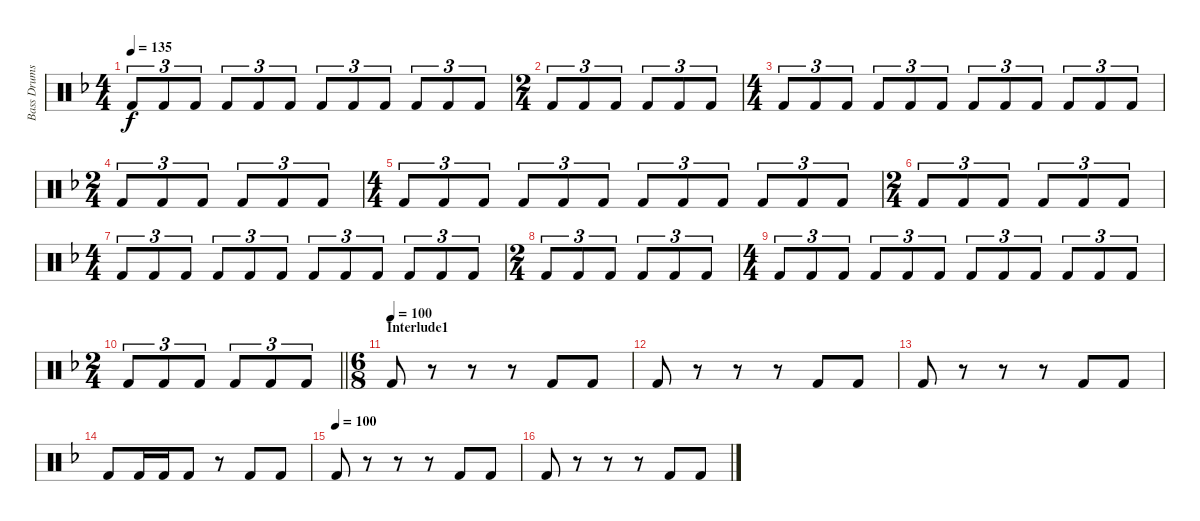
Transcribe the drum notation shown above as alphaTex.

\track ("Bass Drums" "Bass Drums") {instrument percussion}
\staff {score}
\articulation defaults
\ts (4 4)
\tempo 135
\clef neutral
\ks dminor "Kick (hit) 2".8{tu (3 2) dy f} "Kick (hit) 2".8{tu (3 2)} "Kick (hit) 2".8{tu (3 2)} "Kick (hit) 2".8{tu (3 2)} "Kick (hit) 2".8{tu (3 2)} "Kick (hit) 2".8{tu (3 2)} "Kick (hit) 2".8{tu (3 2)} "Kick (hit) 2".8{tu (3 2)} "Kick (hit) 2".8{tu (3 2)} "Kick (hit) 2".8{tu (3 2)} "Kick (hit) 2".8{tu (3 2)} "Kick (hit) 2".8{tu (3 2)}
|
\ts (2 4)
"Kick (hit) 2".8{tu (3 2)} "Kick (hit) 2".8{tu (3 2)} "Kick (hit) 2".8{tu (3 2)} "Kick (hit) 2".8{tu (3 2)} "Kick (hit) 2".8{tu (3 2)} "Kick (hit) 2".8{tu (3 2)} |
\ts (4 4)
"Kick (hit) 2".8{tu (3 2)} "Kick (hit) 2".8{tu (3 2)} "Kick (hit) 2".8{tu (3 2)} "Kick (hit) 2".8{tu (3 2)} "Kick (hit) 2".8{tu (3 2)} "Kick (hit) 2".8{tu (3 2)} "Kick (hit) 2".8{tu (3 2)} "Kick (hit) 2".8{tu (3 2)} "Kick (hit) 2".8{tu (3 2)} "Kick (hit) 2".8{tu (3 2)} "Kick (hit) 2".8{tu (3 2)} "Kick (hit) 2".8{tu (3 2)} |
\ts (2 4)
"Kick (hit) 2".8{tu (3 2)} "Kick (hit) 2".8{tu (3 2)} "Kick (hit) 2".8{tu (3 2)} "Kick (hit) 2".8{tu (3 2)} "Kick (hit) 2".8{tu (3 2)} "Kick (hit) 2".8{tu (3 2)} |
\ts (4 4)
"Kick (hit) 2".8{tu (3 2)} "Kick (hit) 2".8{tu (3 2)} "Kick (hit) 2".8{tu (3 2)} "Kick (hit) 2".8{tu (3 2)} "Kick (hit) 2".8{tu (3 2)} "Kick (hit) 2".8{tu (3 2)} "Kick (hit) 2".8{tu (3 2)} "Kick (hit) 2".8{tu (3 2)} "Kick (hit) 2".8{tu (3 2)} "Kick (hit) 2".8{tu (3 2)} "Kick (hit) 2".8{tu (3 2)} "Kick (hit) 2".8{tu (3 2)} |
\ts (2 4)
"Kick (hit) 2".8{tu (3 2)} "Kick (hit) 2".8{tu (3 2)} "Kick (hit) 2".8{tu (3 2)} "Kick (hit) 2".8{tu (3 2)} "Kick (hit) 2".8{tu (3 2)} "Kick (hit) 2".8{tu (3 2)} |
\ts (4 4)
"Kick (hit) 2".8{tu (3 2)} "Kick (hit) 2".8{tu (3 2)} "Kick (hit) 2".8{tu (3 2)} "Kick (hit) 2".8{tu (3 2)} "Kick (hit) 2".8{tu (3 2)} "Kick (hit) 2".8{tu (3 2)} "Kick (hit) 2".8{tu (3 2)} "Kick (hit) 2".8{tu (3 2)} "Kick (hit) 2".8{tu (3 2)} "Kick (hit) 2".8{tu (3 2)} "Kick (hit) 2".8{tu (3 2)} "Kick (hit) 2".8{tu (3 2)} |
\ts (2 4)
"Kick (hit) 2".8{tu (3 2)} "Kick (hit) 2".8{tu (3 2)} "Kick (hit) 2".8{tu (3 2)} "Kick (hit) 2".8{tu (3 2)} "Kick (hit) 2".8{tu (3 2)} "Kick (hit) 2".8{tu (3 2)} |
\ts (4 4)
"Kick (hit) 2".8{tu (3 2)} "Kick (hit) 2".8{tu (3 2)} "Kick (hit) 2".8{tu (3 2)} "Kick (hit) 2".8{tu (3 2)} "Kick (hit) 2".8{tu (3 2)} "Kick (hit) 2".8{tu (3 2)} "Kick (hit) 2".8{tu (3 2)} "Kick (hit) 2".8{tu (3 2)} "Kick (hit) 2".8{tu (3 2)} "Kick (hit) 2".8{tu (3 2)} "Kick (hit) 2".8{tu (3 2)} "Kick (hit) 2".8{tu (3 2)} |
\ts (2 4)
\barLineRight lightlight "Kick (hit) 2".8{tu (3 2)} "Kick (hit) 2".8{tu (3 2)} "Kick (hit) 2".8{tu (3 2)} "Kick (hit) 2".8{tu (3 2)} "Kick (hit) 2".8{tu (3 2)} "Kick (hit) 2".8{tu (3 2)}
|
\ts (6 8)
\section ("" "Interlude1")
\tempo 90
\tempo (100)
"Kick (hit) 2".8 r.8 r.8 r.8 "Kick (hit) 2".8 "Kick (hit) 2".8 |
"Kick (hit) 2".8 r.8 r.8 r.8 "Kick (hit) 2".8 "Kick (hit) 2".8 |
"Kick (hit) 2".8 r.8 r.8 r.8 "Kick (hit) 2".8 "Kick (hit) 2".8 |
"Kick (hit) 2".8 "Kick (hit) 2".16 "Kick (hit) 2".16 "Kick (hit) 2".8 r.8 "Kick (hit) 2".8 "Kick (hit) 2".8 |
\tempo 90
\tempo (100)
"Kick (hit) 2".8 r.8 r.8 r.8 "Kick (hit) 2".8 "Kick (hit) 2".8 |
"Kick (hit) 2".8 r.8 r.8 r.8 "Kick (hit) 2".8 "Kick (hit) 2".8
